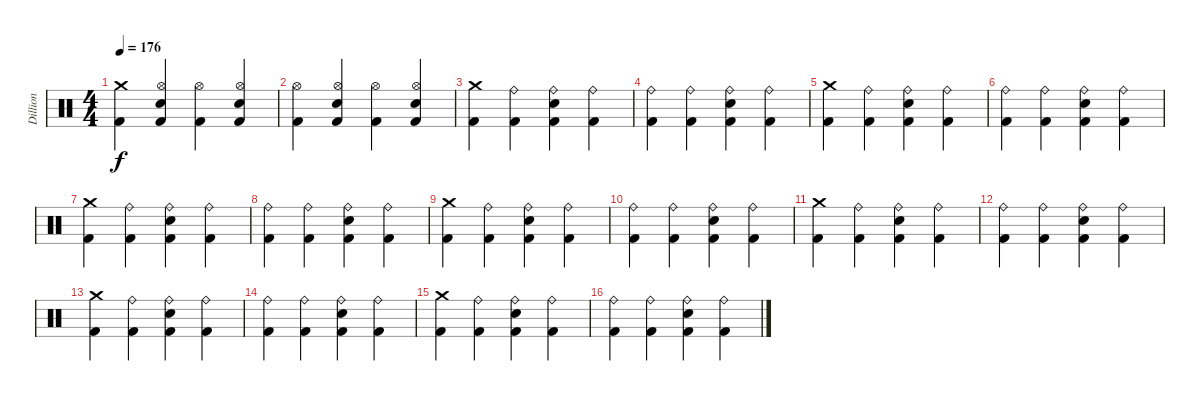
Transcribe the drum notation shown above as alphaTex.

\track ("Dillion" "Dillion") {instrument percussion}
\staff {score}
\articulation defaults
\ts (4 4)
\tempo 176
\clef neutral
\ks c
("Crash medium (hit)" "Kick (hit) 2").4{dy f} ("Hi-Hat (open)" "Electric Snare (hit)" "Kick (hit) 2").4 ("Hi-Hat (open)" "Kick (hit) 2").4 ("Hi-Hat (open)" "Electric Snare (hit)" "Kick (hit) 2").4 |
("Hi-Hat (open)" "Kick (hit) 2").4 ("Hi-Hat (open)" "Electric Snare (hit)" "Kick (hit) 2").4 ("Hi-Hat (open)" "Kick (hit) 2").4 ("Hi-Hat (open)" "Electric Snare (hit)" "Kick (hit) 2").4 |
("Crash medium (hit)" "Kick (hit) 2").4 ("Ride (bell)" "Kick (hit) 2").4 ("Ride (bell)" "Electric Snare (hit)" "Kick (hit) 2").4 ("Ride (bell)" "Kick (hit) 2").4 |
("Ride (bell)" "Kick (hit) 2").4 ("Ride (bell)" "Kick (hit) 2").4 ("Ride (bell)" "Electric Snare (hit)" "Kick (hit) 2").4 ("Ride (bell)" "Kick (hit) 2").4 |
("Crash medium (hit)" "Kick (hit) 2").4 ("Ride (bell)" "Kick (hit) 2").4 ("Ride (bell)" "Electric Snare (hit)" "Kick (hit) 2").4 ("Ride (bell)" "Kick (hit) 2").4 |
("Ride (bell)" "Kick (hit) 2").4 ("Ride (bell)" "Kick (hit) 2").4 ("Ride (bell)" "Electric Snare (hit)" "Kick (hit) 2").4 ("Ride (bell)" "Kick (hit) 2").4 |
("Crash medium (hit)" "Kick (hit) 2").4 ("Ride (bell)" "Kick (hit) 2").4 ("Ride (bell)" "Electric Snare (hit)" "Kick (hit) 2").4 ("Ride (bell)" "Kick (hit) 2").4 |
("Ride (bell)" "Kick (hit) 2").4 ("Ride (bell)" "Kick (hit) 2").4 ("Ride (bell)" "Electric Snare (hit)" "Kick (hit) 2").4 ("Ride (bell)" "Kick (hit) 2").4 |
("Crash medium (hit)" "Kick (hit) 2").4 ("Ride (bell)" "Kick (hit) 2").4 ("Ride (bell)" "Electric Snare (hit)" "Kick (hit) 2").4 ("Ride (bell)" "Kick (hit) 2").4 |
("Ride (bell)" "Kick (hit) 2").4 ("Ride (bell)" "Kick (hit) 2").4 ("Ride (bell)" "Electric Snare (hit)" "Kick (hit) 2").4 ("Ride (bell)" "Kick (hit) 2").4 |
("Crash medium (hit)" "Kick (hit) 2").4 ("Ride (bell)" "Kick (hit) 2").4 ("Ride (bell)" "Electric Snare (hit)" "Kick (hit) 2").4 ("Ride (bell)" "Kick (hit) 2").4 |
("Ride (bell)" "Kick (hit) 2").4 ("Ride (bell)" "Kick (hit) 2").4 ("Ride (bell)" "Electric Snare (hit)" "Kick (hit) 2").4 ("Ride (bell)" "Kick (hit) 2").4 |
("Crash medium (hit)" "Kick (hit) 2").4 ("Ride (bell)" "Kick (hit) 2").4 ("Ride (bell)" "Electric Snare (hit)" "Kick (hit) 2").4 ("Ride (bell)" "Kick (hit) 2").4 |
("Ride (bell)" "Kick (hit) 2").4 ("Ride (bell)" "Kick (hit) 2").4 ("Ride (bell)" "Electric Snare (hit)" "Kick (hit) 2").4 ("Ride (bell)" "Kick (hit) 2").4 |
("Crash medium (hit)" "Kick (hit) 2").4 ("Ride (bell)" "Kick (hit) 2").4 ("Ride (bell)" "Electric Snare (hit)" "Kick (hit) 2").4 ("Ride (bell)" "Kick (hit) 2").4 |
("Ride (bell)" "Kick (hit) 2").4 ("Ride (bell)" "Kick (hit) 2").4 ("Ride (bell)" "Electric Snare (hit)" "Kick (hit) 2").4 ("Ride (bell)" "Kick (hit) 2").4
